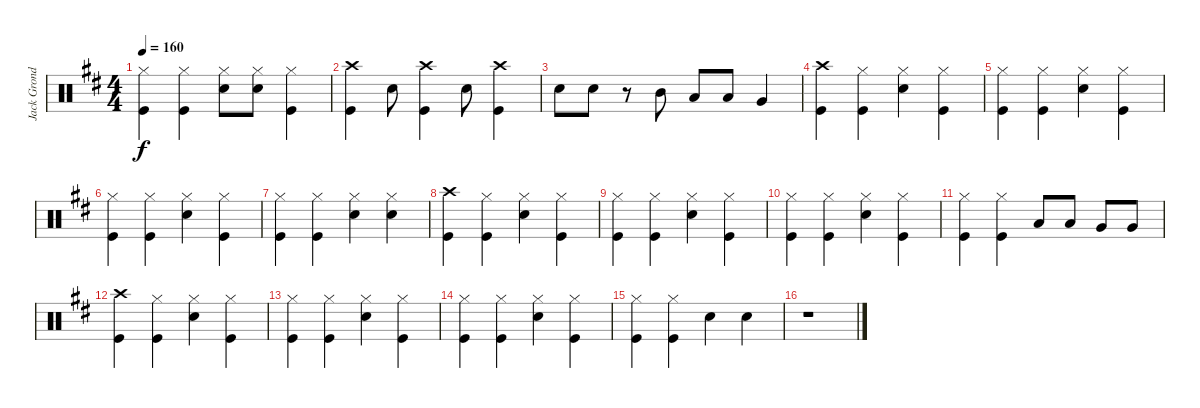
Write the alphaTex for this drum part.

\track ("Jack Grondin Drums" "Jack Grond") {instrument percussion}
\staff {score}
\articulation defaults
\ts (4 4)
\tempo 160
\clef neutral
\ks d
("Hi-Hat (closed)" "Kick (hit)").4{dy f} ("Hi-Hat (closed)" "Kick (hit)").4 ("Hi-Hat (closed)" "Snare (hit) 2").8 ("Hi-Hat (closed)" "Snare (hit) 2").8 ("Hi-Hat (closed)" "Kick (hit)").4 |
("Crash high (hit)" "Kick (hit)").4 "Snare (hit) 2".8 ("Crash high (hit)" "Kick (hit)").4 "Snare (hit) 2".8 ("Crash high (hit)" "Kick (hit)").4 |
"Snare (hit) 2".8 "Snare (hit) 2".8 r.8 "Mid Tom (hit)".8 "Low Tom (hit)".8 "Low Tom (hit)".8 "Very Low Tom (hit)".4 |
("Crash high (hit)" "Kick (hit)").4 ("Hi-Hat (closed)" "Kick (hit)").4 ("Hi-Hat (closed)" "Snare (hit) 2").4 ("Hi-Hat (closed)" "Kick (hit)").4 |
("Hi-Hat (closed)" "Kick (hit)").4 ("Hi-Hat (closed)" "Kick (hit)").4 ("Hi-Hat (closed)" "Snare (hit) 2").4 ("Hi-Hat (closed)" "Kick (hit)").4 |
("Hi-Hat (closed)" "Kick (hit)").4 ("Hi-Hat (closed)" "Kick (hit)").4 ("Hi-Hat (closed)" "Snare (hit) 2").4 ("Hi-Hat (closed)" "Kick (hit)").4 |
("Hi-Hat (closed)" "Kick (hit)").4 ("Hi-Hat (closed)" "Kick (hit)").4 ("Hi-Hat (closed)" "Snare (hit) 2").4 ("Hi-Hat (closed)" "Snare (hit) 2").4 |
("Crash high (hit)" "Kick (hit)").4 ("Hi-Hat (closed)" "Kick (hit)").4 ("Hi-Hat (closed)" "Snare (hit) 2").4 ("Hi-Hat (closed)" "Kick (hit)").4 |
("Hi-Hat (closed)" "Kick (hit)").4 ("Hi-Hat (closed)" "Kick (hit)").4 ("Hi-Hat (closed)" "Snare (hit) 2").4 ("Hi-Hat (closed)" "Kick (hit)").4 |
("Hi-Hat (closed)" "Kick (hit)").4 ("Hi-Hat (closed)" "Kick (hit)").4 ("Hi-Hat (closed)" "Snare (hit) 2").4 ("Hi-Hat (closed)" "Kick (hit)").4 |
("Hi-Hat (closed)" "Kick (hit)").4 ("Hi-Hat (closed)" "Kick (hit)").4 "Low Tom (hit)".8 "Low Tom (hit)".8 "Very Low Tom (hit)".8 "Very Low Tom (hit)".8 |
("Crash high (hit)" "Kick (hit)").4 ("Hi-Hat (closed)" "Kick (hit)").4 ("Hi-Hat (closed)" "Snare (hit) 2").4 ("Hi-Hat (closed)" "Kick (hit)").4 |
("Hi-Hat (closed)" "Kick (hit)").4 ("Hi-Hat (closed)" "Kick (hit)").4 ("Hi-Hat (closed)" "Snare (hit) 2").4 ("Hi-Hat (closed)" "Kick (hit)").4 |
("Hi-Hat (closed)" "Kick (hit)").4 ("Hi-Hat (closed)" "Kick (hit)").4 ("Hi-Hat (closed)" "Snare (hit) 2").4 ("Hi-Hat (closed)" "Kick (hit)").4 |
("Hi-Hat (closed)" "Kick (hit)").4 ("Hi-Hat (closed)" "Kick (hit)").4 "Snare (hit) 2".4 "Snare (hit) 2".4 |
r.1{volume 9}
